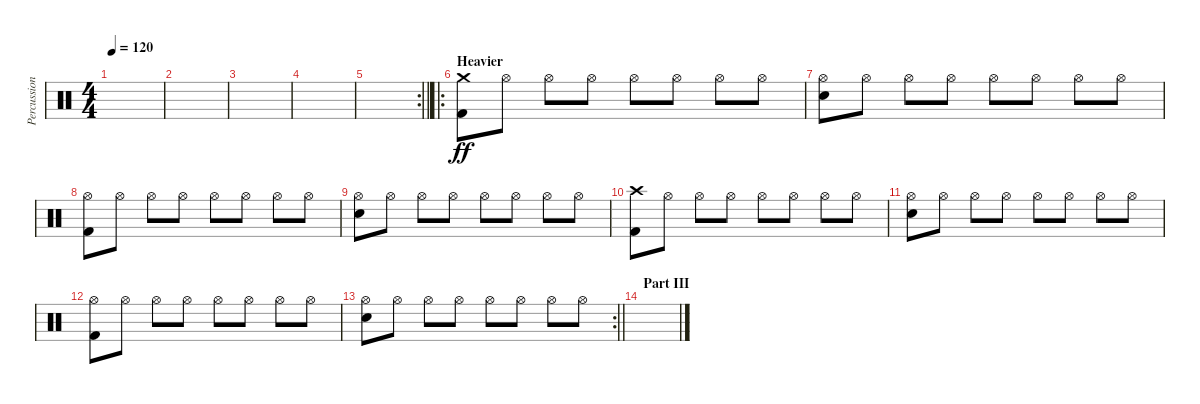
\track ("Percussion" "Percussion") {instrument percussion}
\staff {score}
\articulation defaults
\ts (4 4)
\tempo 120
\clef neutral
\ks c
|
|
|
|
\rc 2
\barLineRight lightlight
|
\ro
\section ("" "Heavier")
("Kick (hit) 2" "Crash medium (hit)").8{dy ff} "Hi-Hat (open)".8 "Hi-Hat (open)".8 "Hi-Hat (open)".8 "Hi-Hat (open)".8 "Hi-Hat (open)".8 "Hi-Hat (open)".8 "Hi-Hat (open)".8 |
("Electric Snare (hit)" "Hi-Hat (open)").8 "Hi-Hat (open)".8 "Hi-Hat (open)".8 "Hi-Hat (open)".8 "Hi-Hat (open)".8 "Hi-Hat (open)".8 "Hi-Hat (open)".8 "Hi-Hat (open)".8 |
("Kick (hit) 2" "Hi-Hat (open)").8 "Hi-Hat (open)".8 "Hi-Hat (open)".8 "Hi-Hat (open)".8 "Hi-Hat (open)".8 "Hi-Hat (open)".8 "Hi-Hat (open)".8 "Hi-Hat (open)".8 |
("Electric Snare (hit)" "Hi-Hat (open)").8 "Hi-Hat (open)".8 "Hi-Hat (open)".8 "Hi-Hat (open)".8 "Hi-Hat (open)".8 "Hi-Hat (open)".8 "Hi-Hat (open)".8 "Hi-Hat (open)".8 |
("Kick (hit) 2" "Crash high (hit)").8 "Hi-Hat (open)".8 "Hi-Hat (open)".8 "Hi-Hat (open)".8 "Hi-Hat (open)".8 "Hi-Hat (open)".8 "Hi-Hat (open)".8 "Hi-Hat (open)".8 |
("Electric Snare (hit)" "Hi-Hat (open)").8 "Hi-Hat (open)".8 "Hi-Hat (open)".8 "Hi-Hat (open)".8 "Hi-Hat (open)".8 "Hi-Hat (open)".8 "Hi-Hat (open)".8 "Hi-Hat (open)".8 |
("Kick (hit) 2" "Hi-Hat (open)").8 "Hi-Hat (open)".8 "Hi-Hat (open)".8 "Hi-Hat (open)".8 "Hi-Hat (open)".8 "Hi-Hat (open)".8 "Hi-Hat (open)".8 "Hi-Hat (open)".8 |
\rc 2
\barLineRight lightlight
("Electric Snare (hit)" "Hi-Hat (open)").8 "Hi-Hat (open)".8 "Hi-Hat (open)".8 "Hi-Hat (open)".8 "Hi-Hat (open)".8 "Hi-Hat (open)".8 "Hi-Hat (open)".8 "Hi-Hat (open)".8 |
\section ("" "Part III")
